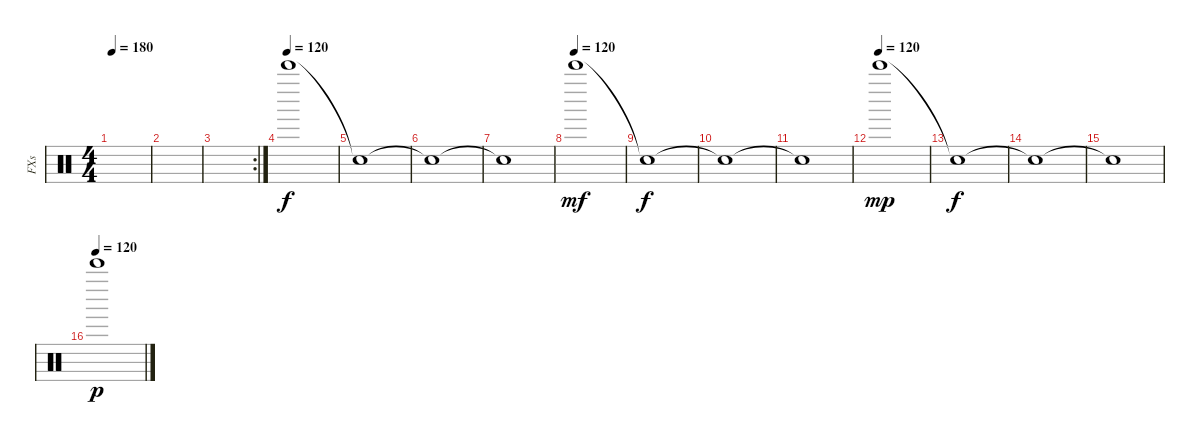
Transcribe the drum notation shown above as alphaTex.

\track ("FXs" "FXs") {instrument percussion}
\staff {score}
\articulation defaults
\ts (4 4)
\tempo 180
\clef neutral
\ks c
|
|
\rc 2
|
\tempo (120)
"Bell Tree (hit)".1 |
"Snare (hit)"{t}.1 |
"Snare (hit)"{t}.1 |
"Snare (hit)"{t}.1 |
\tempo (120)
"Bell Tree (hit)".1{dy mf} |
"Snare (hit)"{t}.1{dy f} |
"Snare (hit)"{t}.1 |
"Snare (hit)"{t}.1 |
\tempo (120)
"Bell Tree (hit)".1{dy mp} |
"Snare (hit)"{t}.1{dy f} |
"Snare (hit)"{t}.1 |
"Snare (hit)"{t}.1 |
\tempo (120)
"Bell Tree (hit)".1{dy p}
